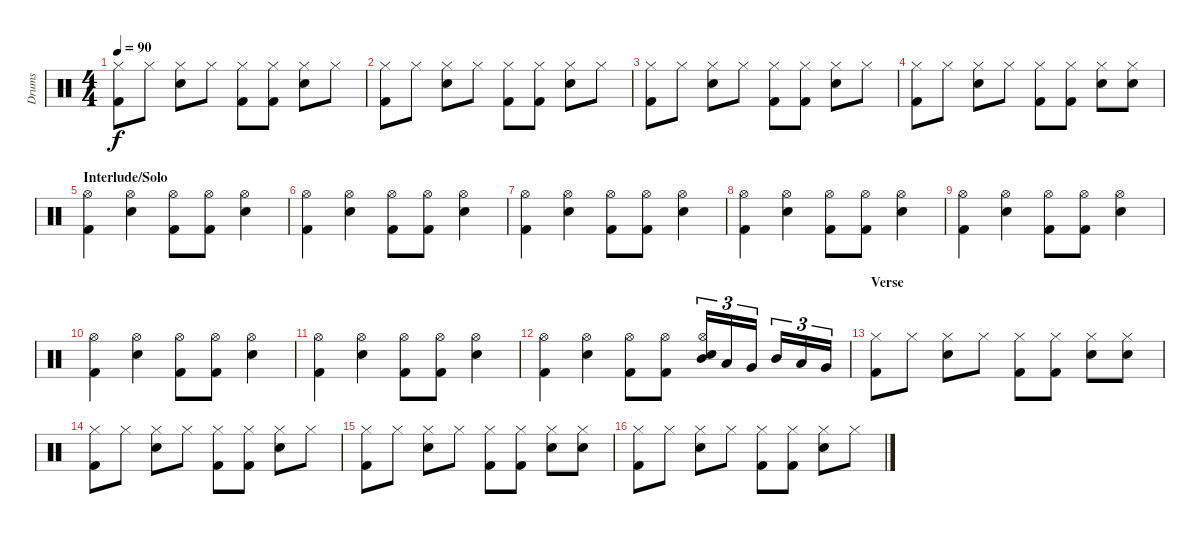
\track ("Drums" "Drums") {instrument percussion}
\staff {score}
\articulation defaults
\ts (4 4)
\tempo 90
\clef neutral
\ks c
("Hi-Hat (closed)" "Kick (hit) 2").8{dy f} "Hi-Hat (closed)".8 ("Hi-Hat (closed)" "Electric Snare (hit)").8 "Hi-Hat (closed)".8 ("Hi-Hat (closed)" "Kick (hit) 2").8 ("Hi-Hat (closed)" "Kick (hit) 2").8 ("Hi-Hat (closed)" "Electric Snare (hit)").8 "Hi-Hat (closed)".8 |
("Hi-Hat (closed)" "Kick (hit) 2").8 "Hi-Hat (closed)".8 ("Hi-Hat (closed)" "Electric Snare (hit)").8 "Hi-Hat (closed)".8 ("Hi-Hat (closed)" "Kick (hit) 2").8 ("Hi-Hat (closed)" "Kick (hit) 2").8 ("Hi-Hat (closed)" "Electric Snare (hit)").8 "Hi-Hat (closed)".8 |
("Hi-Hat (closed)" "Kick (hit) 2").8 "Hi-Hat (closed)".8 ("Hi-Hat (closed)" "Electric Snare (hit)").8 "Hi-Hat (closed)".8 ("Hi-Hat (closed)" "Kick (hit) 2").8 ("Hi-Hat (closed)" "Kick (hit) 2").8 ("Hi-Hat (closed)" "Electric Snare (hit)").8 "Hi-Hat (closed)".8 |
("Hi-Hat (closed)" "Kick (hit) 2").8 "Hi-Hat (closed)".8 ("Hi-Hat (closed)" "Electric Snare (hit)").8 "Hi-Hat (closed)".8 ("Hi-Hat (closed)" "Kick (hit) 2").8 ("Hi-Hat (closed)" "Kick (hit) 2").8 ("Hi-Hat (closed)" "Electric Snare (hit)").8 ("Hi-Hat (closed)" "Electric Snare (hit)").8 |
\section ("" "Interlude/Solo")
("Hi-Hat (open)" "Kick (hit) 2").4 ("Hi-Hat (open)" "Electric Snare (hit)").4 ("Hi-Hat (open)" "Kick (hit) 2").8 ("Hi-Hat (open)" "Kick (hit) 2").8 ("Hi-Hat (open)" "Electric Snare (hit)").4 |
("Hi-Hat (open)" "Kick (hit) 2").4 ("Hi-Hat (open)" "Electric Snare (hit)").4 ("Hi-Hat (open)" "Kick (hit) 2").8 ("Hi-Hat (open)" "Kick (hit) 2").8 ("Hi-Hat (open)" "Electric Snare (hit)").4 |
("Hi-Hat (open)" "Kick (hit) 2").4 ("Hi-Hat (open)" "Electric Snare (hit)").4 ("Hi-Hat (open)" "Kick (hit) 2").8 ("Hi-Hat (open)" "Kick (hit) 2").8 ("Hi-Hat (open)" "Electric Snare (hit)").4 |
("Hi-Hat (open)" "Kick (hit) 2").4 ("Hi-Hat (open)" "Electric Snare (hit)").4 ("Hi-Hat (open)" "Kick (hit) 2").8 ("Hi-Hat (open)" "Kick (hit) 2").8 ("Hi-Hat (open)" "Electric Snare (hit)").4 |
("Hi-Hat (open)" "Kick (hit) 2").4 ("Hi-Hat (open)" "Electric Snare (hit)").4 ("Hi-Hat (open)" "Kick (hit) 2").8 ("Hi-Hat (open)" "Kick (hit) 2").8 ("Hi-Hat (open)" "Electric Snare (hit)").4 |
("Hi-Hat (open)" "Kick (hit) 2").4 ("Hi-Hat (open)" "Electric Snare (hit)").4 ("Hi-Hat (open)" "Kick (hit) 2").8 ("Hi-Hat (open)" "Kick (hit) 2").8 ("Hi-Hat (open)" "Electric Snare (hit)").4 |
("Hi-Hat (open)" "Kick (hit) 2").4 ("Hi-Hat (open)" "Electric Snare (hit)").4 ("Hi-Hat (open)" "Kick (hit) 2").8 ("Hi-Hat (open)" "Kick (hit) 2").8 ("Hi-Hat (open)" "Electric Snare (hit)").4 |
("Hi-Hat (open)" "Kick (hit) 2").4 ("Hi-Hat (open)" "Electric Snare (hit)").4 ("Hi-Hat (open)" "Kick (hit) 2").8 ("Hi-Hat (open)" "Kick (hit) 2").8 ("Hi-Hat (open)" "Mid Tom (hit)" "Electric Snare (hit)").16{tu (3 2)} "Low Tom (hit)".16{tu (3 2)} "Very Low Tom (hit)".16{tu (3 2)} "Mid Tom (hit)".16{tu (3 2)} "Low Tom (hit)".16{tu (3 2)} "Very Low Tom (hit)".16{tu (3 2)} |
\section ("" "Verse")
("Hi-Hat (closed)" "Kick (hit) 2").8 "Hi-Hat (closed)".8 ("Hi-Hat (closed)" "Electric Snare (hit)").8 "Hi-Hat (closed)".8 ("Hi-Hat (closed)" "Kick (hit) 2").8 ("Hi-Hat (closed)" "Kick (hit) 2").8 ("Hi-Hat (closed)" "Electric Snare (hit)").8 ("Hi-Hat (closed)" "Electric Snare (hit)").8 |
("Hi-Hat (closed)" "Kick (hit) 2").8 "Hi-Hat (closed)".8 ("Hi-Hat (closed)" "Electric Snare (hit)").8 "Hi-Hat (closed)".8 ("Hi-Hat (closed)" "Kick (hit) 2").8 ("Hi-Hat (closed)" "Kick (hit) 2").8 ("Hi-Hat (closed)" "Electric Snare (hit)").8 "Hi-Hat (closed)".8 |
("Hi-Hat (closed)" "Kick (hit) 2").8 "Hi-Hat (closed)".8 ("Hi-Hat (closed)" "Electric Snare (hit)").8 "Hi-Hat (closed)".8 ("Hi-Hat (closed)" "Kick (hit) 2").8 ("Hi-Hat (closed)" "Kick (hit) 2").8 ("Hi-Hat (closed)" "Electric Snare (hit)").8 ("Hi-Hat (closed)" "Electric Snare (hit)").8 |
("Hi-Hat (closed)" "Kick (hit) 2").8 "Hi-Hat (closed)".8 ("Hi-Hat (closed)" "Electric Snare (hit)").8 "Hi-Hat (closed)".8 ("Hi-Hat (closed)" "Kick (hit) 2").8 ("Hi-Hat (closed)" "Kick (hit) 2").8 ("Hi-Hat (closed)" "Electric Snare (hit)").8 "Hi-Hat (closed)".8
